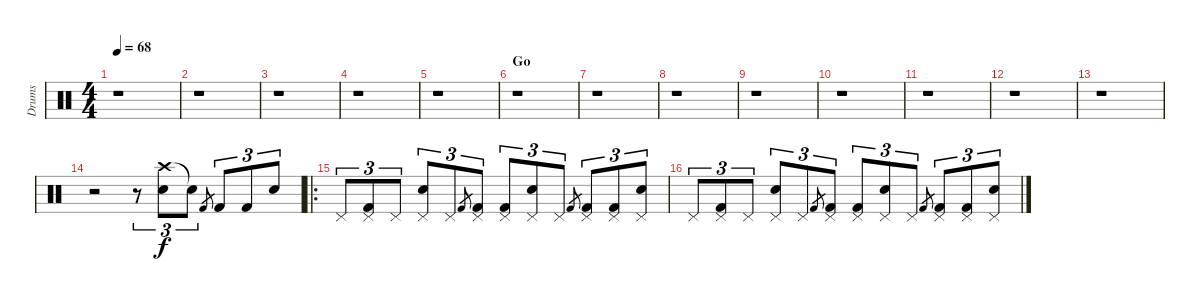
\track ("Drums" "Drums") {instrument percussion}
\staff {score}
\articulation defaults
\ts (4 4)
\tempo 68
\clef neutral
\ks c
r.1{dy f} |
r.1 |
r.1 |
r.1 |
r.1 |
\section ("" "Go")
r.1 |
r.1 |
r.1 |
r.1 |
r.1 |
r.1 |
r.1 |
r.1 |
r.2 r.8{tu (3 2)} ("Crash high (hit)" "Electric Snare (hit)").8{tu (3 2)} "Snare (hit)"{t}.8{tu (3 2)} "Kick (hit) 2".8{gr} "Kick (hit) 2".8{tu (3 2)} "Kick (hit) 2".8{tu (3 2)} "Electric Snare (hit)".8{tu (3 2)} |
\ro "Pedal Hi-Hat (hit)".8{tu (3 2)}
("Pedal Hi-Hat (hit)" "Kick (hit) 2").8{tu (3 2)} "Pedal Hi-Hat (hit)".8{tu (3 2)} ("Pedal Hi-Hat (hit)" "Electric Snare (hit)").8{tu (3 2)} "Pedal Hi-Hat (hit)".8{tu (3 2)} "Kick (hit) 2".8{gr} ("Pedal Hi-Hat (hit)" "Kick (hit) 2").8{tu (3 2)} ("Pedal Hi-Hat (hit)" "Kick (hit) 2").8{tu (3 2)} ("Pedal Hi-Hat (hit)" "Electric Snare (hit)").8{tu (3 2)} "Pedal Hi-Hat (hit)".8{tu (3 2)} "Kick (hit) 2".8{gr} ("Pedal Hi-Hat (hit)" "Kick (hit) 2").8{tu (3 2)} ("Pedal Hi-Hat (hit)" "Kick (hit) 2").8{tu (3 2)} ("Pedal Hi-Hat (hit)" "Electric Snare (hit)").8{tu (3 2)} |
"Pedal Hi-Hat (hit)".8{tu (3 2)} ("Pedal Hi-Hat (hit)" "Kick (hit) 2").8{tu (3 2)} "Pedal Hi-Hat (hit)".8{tu (3 2)} ("Pedal Hi-Hat (hit)" "Electric Snare (hit)").8{tu (3 2)} "Pedal Hi-Hat (hit)".8{tu (3 2)} "Kick (hit) 2".8{gr} ("Pedal Hi-Hat (hit)" "Kick (hit) 2").8{tu (3 2)} ("Pedal Hi-Hat (hit)" "Kick (hit) 2").8{tu (3 2)} ("Pedal Hi-Hat (hit)" "Electric Snare (hit)").8{tu (3 2)} "Pedal Hi-Hat (hit)".8{tu (3 2)} "Kick (hit) 2".8{gr} ("Pedal Hi-Hat (hit)" "Kick (hit) 2").8{tu (3 2)} ("Pedal Hi-Hat (hit)" "Kick (hit) 2").8{tu (3 2)} ("Pedal Hi-Hat (hit)" "Electric Snare (hit)").8{tu (3 2)}
